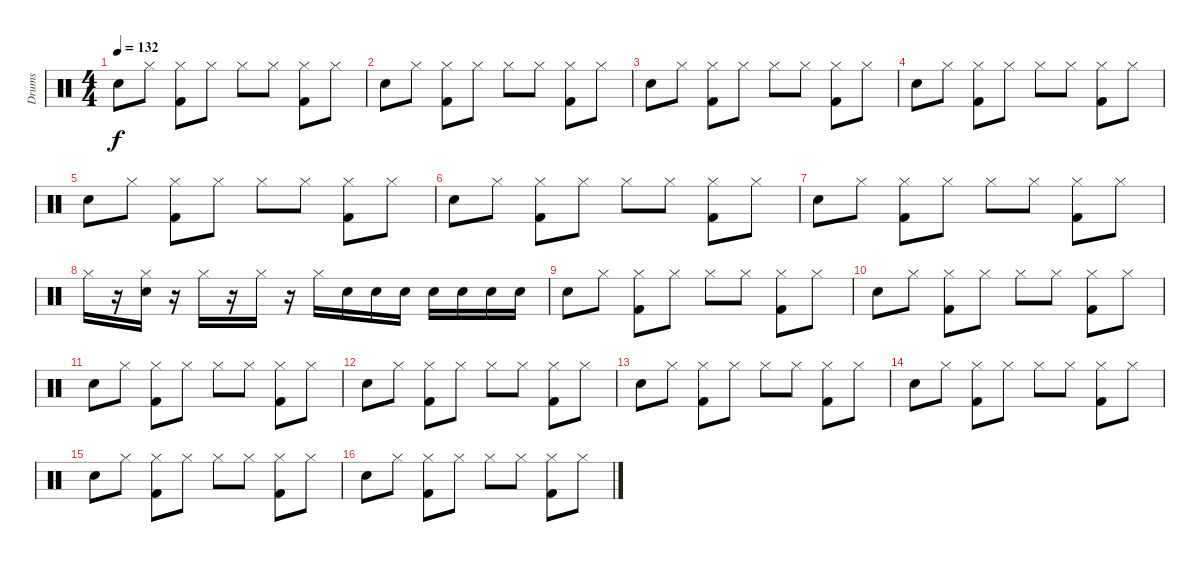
\track ("Drums" "Drums") {instrument percussion}
\staff {score}
\articulation defaults
\ts (4 4)
\tempo 132
\clef neutral
\ks c "Electric Snare (hit)".8{dy f} "Hi-Hat (closed)".8
("Kick (hit) 2" "Hi-Hat (closed)").8 "Hi-Hat (closed)".8 "Hi-Hat (closed)".8 "Hi-Hat (closed)".8 ("Kick (hit) 2" "Hi-Hat (closed)").8 "Hi-Hat (closed)".8 |
"Electric Snare (hit)".8 "Hi-Hat (closed)".8 ("Kick (hit) 2" "Hi-Hat (closed)").8 "Hi-Hat (closed)".8 "Hi-Hat (closed)".8 "Hi-Hat (closed)".8 ("Kick (hit) 2" "Hi-Hat (closed)").8 "Hi-Hat (closed)".8 |
"Electric Snare (hit)".8 "Hi-Hat (closed)".8 ("Kick (hit) 2" "Hi-Hat (closed)").8 "Hi-Hat (closed)".8 "Hi-Hat (closed)".8 "Hi-Hat (closed)".8 ("Kick (hit) 2" "Hi-Hat (closed)").8 "Hi-Hat (closed)".8 |
"Electric Snare (hit)".8 "Hi-Hat (closed)".8 ("Kick (hit) 2" "Hi-Hat (closed)").8 "Hi-Hat (closed)".8 "Hi-Hat (closed)".8 "Hi-Hat (closed)".8 ("Kick (hit) 2" "Hi-Hat (closed)").8 "Hi-Hat (closed)".8 |
"Electric Snare (hit)".8 "Hi-Hat (closed)".8 ("Kick (hit) 2" "Hi-Hat (closed)").8 "Hi-Hat (closed)".8 "Hi-Hat (closed)".8 "Hi-Hat (closed)".8 ("Kick (hit) 2" "Hi-Hat (closed)").8 "Hi-Hat (closed)".8 |
"Electric Snare (hit)".8 "Hi-Hat (closed)".8 ("Kick (hit) 2" "Hi-Hat (closed)").8 "Hi-Hat (closed)".8 "Hi-Hat (closed)".8 "Hi-Hat (closed)".8 ("Kick (hit) 2" "Hi-Hat (closed)").8 "Hi-Hat (closed)".8 |
"Electric Snare (hit)".8 "Hi-Hat (closed)".8 ("Kick (hit) 2" "Hi-Hat (closed)").8 "Hi-Hat (closed)".8 "Hi-Hat (closed)".8 "Hi-Hat (closed)".8 ("Kick (hit) 2" "Hi-Hat (closed)").8 "Hi-Hat (closed)".8 |
"Hi-Hat (closed)".16 r.16 ("Hi-Hat (closed)" "Electric Snare (hit)").16 r.16 "Hi-Hat (closed)".16 r.16 "Hi-Hat (closed)".16 r.16 "Hi-Hat (closed)".16 "Electric Snare (hit)".16 "Electric Snare (hit)".16 "Electric Snare (hit)".16 "Electric Snare (hit)".16 "Electric Snare (hit)".16 "Electric Snare (hit)".16 "Electric Snare (hit)".16 |
"Electric Snare (hit)".8 "Hi-Hat (closed)".8 ("Kick (hit) 2" "Hi-Hat (closed)").8 "Hi-Hat (closed)".8 "Hi-Hat (closed)".8 "Hi-Hat (closed)".8 ("Kick (hit) 2" "Hi-Hat (closed)").8 "Hi-Hat (closed)".8 |
"Electric Snare (hit)".8 "Hi-Hat (closed)".8 ("Kick (hit) 2" "Hi-Hat (closed)").8 "Hi-Hat (closed)".8 "Hi-Hat (closed)".8 "Hi-Hat (closed)".8 ("Kick (hit) 2" "Hi-Hat (closed)").8 "Hi-Hat (closed)".8 |
"Electric Snare (hit)".8 "Hi-Hat (closed)".8 ("Kick (hit) 2" "Hi-Hat (closed)").8 "Hi-Hat (closed)".8 "Hi-Hat (closed)".8 "Hi-Hat (closed)".8 ("Kick (hit) 2" "Hi-Hat (closed)").8 "Hi-Hat (closed)".8 |
"Electric Snare (hit)".8 "Hi-Hat (closed)".8 ("Kick (hit) 2" "Hi-Hat (closed)").8 "Hi-Hat (closed)".8 "Hi-Hat (closed)".8 "Hi-Hat (closed)".8 ("Kick (hit) 2" "Hi-Hat (closed)").8 "Hi-Hat (closed)".8 |
"Electric Snare (hit)".8 "Hi-Hat (closed)".8 ("Kick (hit) 2" "Hi-Hat (closed)").8 "Hi-Hat (closed)".8 "Hi-Hat (closed)".8 "Hi-Hat (closed)".8 ("Kick (hit) 2" "Hi-Hat (closed)").8 "Hi-Hat (closed)".8 |
"Electric Snare (hit)".8 "Hi-Hat (closed)".8 ("Kick (hit) 2" "Hi-Hat (closed)").8 "Hi-Hat (closed)".8 "Hi-Hat (closed)".8 "Hi-Hat (closed)".8 ("Kick (hit) 2" "Hi-Hat (closed)").8 "Hi-Hat (closed)".8 |
"Electric Snare (hit)".8 "Hi-Hat (closed)".8 ("Kick (hit) 2" "Hi-Hat (closed)").8 "Hi-Hat (closed)".8 "Hi-Hat (closed)".8 "Hi-Hat (closed)".8 ("Kick (hit) 2" "Hi-Hat (closed)").8 "Hi-Hat (closed)".8 |
"Electric Snare (hit)".8 "Hi-Hat (closed)".8 ("Kick (hit) 2" "Hi-Hat (closed)").8 "Hi-Hat (closed)".8 "Hi-Hat (closed)".8 "Hi-Hat (closed)".8 ("Kick (hit) 2" "Hi-Hat (closed)").8 "Hi-Hat (closed)".8
